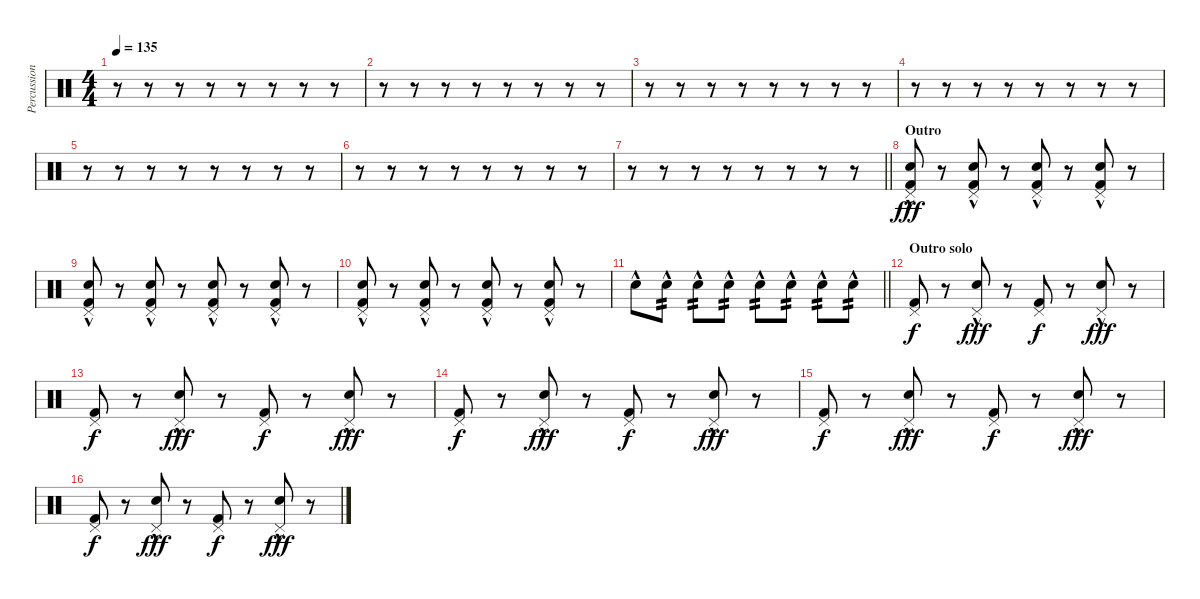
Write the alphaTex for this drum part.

\track ("Percussion" "Percussion") {instrument percussion}
\staff {score}
\articulation defaults
\ts (4 4)
\tempo 135
\clef neutral
\ks c
r.8{dy fff} r.8 r.8 r.8 r.8 r.8 r.8 r.8 |
r.8 r.8 r.8 r.8 r.8 r.8 r.8 r.8 |
r.8 r.8 r.8 r.8 r.8 r.8 r.8 r.8 |
r.8 r.8 r.8 r.8 r.8 r.8 r.8 r.8 |
r.8 r.8 r.8 r.8 r.8 r.8 r.8 r.8 |
r.8 r.8 r.8 r.8 r.8 r.8 r.8 r.8 |
\barLineRight lightlight
r.8 r.8 r.8 r.8 r.8 r.8 r.8 r.8 |
\section ("" "Outro")
("Kick (hit) 2" "Snare (hit) 2"{hac} "Pedal Hi-Hat (hit)").8 r.8 ("Kick (hit) 2" "Snare (hit) 2"{hac} "Pedal Hi-Hat (hit)").8 r.8 ("Kick (hit) 2" "Snare (hit) 2"{hac} "Pedal Hi-Hat (hit)").8 r.8 ("Kick (hit) 2" "Snare (hit) 2"{hac} "Pedal Hi-Hat (hit)").8 r.8 |
("Kick (hit) 2" "Snare (hit) 2"{hac} "Pedal Hi-Hat (hit)").8 r.8 ("Kick (hit) 2" "Snare (hit) 2"{hac} "Pedal Hi-Hat (hit)").8 r.8 ("Kick (hit) 2" "Snare (hit) 2"{hac} "Pedal Hi-Hat (hit)").8 r.8 ("Kick (hit) 2" "Snare (hit) 2"{hac} "Pedal Hi-Hat (hit)").8 r.8 |
("Kick (hit) 2" "Snare (hit) 2"{hac} "Pedal Hi-Hat (hit)").8 r.8 ("Kick (hit) 2" "Snare (hit) 2"{hac} "Pedal Hi-Hat (hit)").8 r.8 ("Kick (hit) 2" "Snare (hit) 2"{hac} "Pedal Hi-Hat (hit)").8 r.8 ("Kick (hit) 2" "Snare (hit) 2"{hac} "Pedal Hi-Hat (hit)").8 r.8 |
\barLineRight lightlight "Snare (hit) 2"{hac}.8 "Snare (hit) 2"{hac}.8{tp 2} "Snare (hit) 2"{hac}.8{tp 2} "Snare (hit) 2"{hac}.8{tp 2} "Snare (hit) 2"{hac}.8{tp 2} "Snare (hit) 2"{hac}.8{tp 2} "Snare (hit) 2"{hac}.8{tp 2} "Snare (hit) 2"{hac}.8{tp 2}
|
\section ("" "Outro solo")
("Kick (hit) 2" "Pedal Hi-Hat (hit)").8{dy f} r.8 ("Snare (hit) 2"{hac} "Pedal Hi-Hat (hit)").8{dy fff} r.8 ("Kick (hit) 2" "Pedal Hi-Hat (hit)").8{dy f} r.8 ("Snare (hit) 2"{hac} "Pedal Hi-Hat (hit)").8{dy fff} r.8 |
("Kick (hit) 2" "Pedal Hi-Hat (hit)").8{dy f} r.8 ("Snare (hit) 2"{hac} "Pedal Hi-Hat (hit)").8{dy fff} r.8 ("Kick (hit) 2" "Pedal Hi-Hat (hit)").8{dy f} r.8 ("Snare (hit) 2"{hac} "Pedal Hi-Hat (hit)").8{dy fff} r.8 |
("Kick (hit) 2" "Pedal Hi-Hat (hit)").8{dy f} r.8 ("Snare (hit) 2"{hac} "Pedal Hi-Hat (hit)").8{dy fff} r.8 ("Kick (hit) 2" "Pedal Hi-Hat (hit)").8{dy f} r.8 ("Snare (hit) 2"{hac} "Pedal Hi-Hat (hit)").8{dy fff} r.8 |
("Kick (hit) 2" "Pedal Hi-Hat (hit)").8{dy f} r.8 ("Snare (hit) 2"{hac} "Pedal Hi-Hat (hit)").8{dy fff} r.8 ("Kick (hit) 2" "Pedal Hi-Hat (hit)").8{dy f} r.8 ("Snare (hit) 2"{hac} "Pedal Hi-Hat (hit)").8{dy fff} r.8 |
("Kick (hit) 2" "Pedal Hi-Hat (hit)").8{dy f} r.8 ("Snare (hit) 2"{hac} "Pedal Hi-Hat (hit)").8{dy fff} r.8 ("Kick (hit) 2" "Pedal Hi-Hat (hit)").8{dy f} r.8 ("Snare (hit) 2"{hac} "Pedal Hi-Hat (hit)").8{dy fff} r.8
